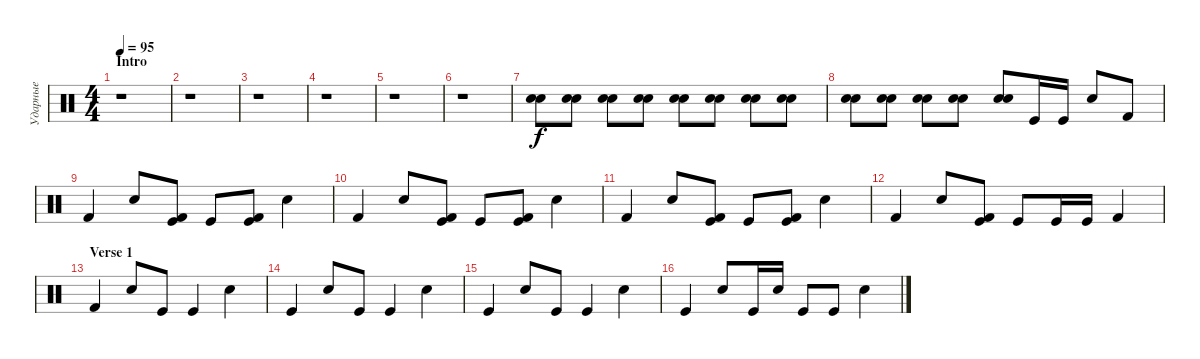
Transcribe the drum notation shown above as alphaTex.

\track ("Ударные" "Ударные") {instrument percussion}
\staff {score}
\articulation defaults
\ts (4 4)
\section ("" "Intro")
\tempo 95
\clef neutral
\ks c
r.1{dy f} |
r.1 |
r.1 |
r.1 |
r.1 |
r.1 |
("Electric Snare (hit)" "Electric Snare (hit)").8{volume 8} ("Electric Snare (hit)" "Electric Snare (hit)").8{volume 16} ("Electric Snare (hit)" "Electric Snare (hit)").8 ("Electric Snare (hit)" "Electric Snare (hit)").8 ("Electric Snare (hit)" "Electric Snare (hit)").8 ("Electric Snare (hit)" "Electric Snare (hit)").8 ("Electric Snare (hit)" "Electric Snare (hit)").8 ("Electric Snare (hit)" "Electric Snare (hit)").8 |
("Electric Snare (hit)" "Electric Snare (hit)").8 ("Electric Snare (hit)" "Electric Snare (hit)").8 ("Electric Snare (hit)" "Electric Snare (hit)").8 ("Electric Snare (hit)" "Electric Snare (hit)").8 ("Electric Snare (hit)" "Electric Snare (hit)").8 "Kick (hit)".16 "Kick (hit)".16 "Electric Snare (hit)".8 "Kick (hit) 2".8 |
"Kick (hit) 2".4 "Electric Snare (hit)".8 ("Kick (hit) 2" "Kick (hit)").8 "Kick (hit)".8 ("Kick (hit) 2" "Kick (hit)").8 "Electric Snare (hit)".4 |
"Kick (hit) 2".4 "Electric Snare (hit)".8 ("Kick (hit) 2" "Kick (hit)").8 "Kick (hit)".8 ("Kick (hit) 2" "Kick (hit)").8 "Electric Snare (hit)".4 |
"Kick (hit) 2".4 "Electric Snare (hit)".8 ("Kick (hit) 2" "Kick (hit)").8 "Kick (hit)".8 ("Kick (hit) 2" "Kick (hit)").8 "Electric Snare (hit)".4 |
"Kick (hit) 2".4 "Electric Snare (hit)".8 ("Kick (hit) 2" "Kick (hit)").8 "Kick (hit)".8 "Kick (hit)".16 "Kick (hit)".16 "Kick (hit) 2".4 |
\section ("" "Verse 1")
"Kick (hit) 2".4 "Electric Snare (hit)".8 "Kick (hit)".8 "Kick (hit)".4 "Electric Snare (hit)".4 |
"Kick (hit)".4 "Electric Snare (hit)".8 "Kick (hit)".8 "Kick (hit)".4 "Electric Snare (hit)".4 |
"Kick (hit)".4 "Electric Snare (hit)".8 "Kick (hit)".8 "Kick (hit)".4 "Electric Snare (hit)".4 |
"Kick (hit)".4 "Electric Snare (hit)".8 "Kick (hit)".16 "Electric Snare (hit)".16 "Kick (hit)".8 "Kick (hit)".8 "Electric Snare (hit)".4
